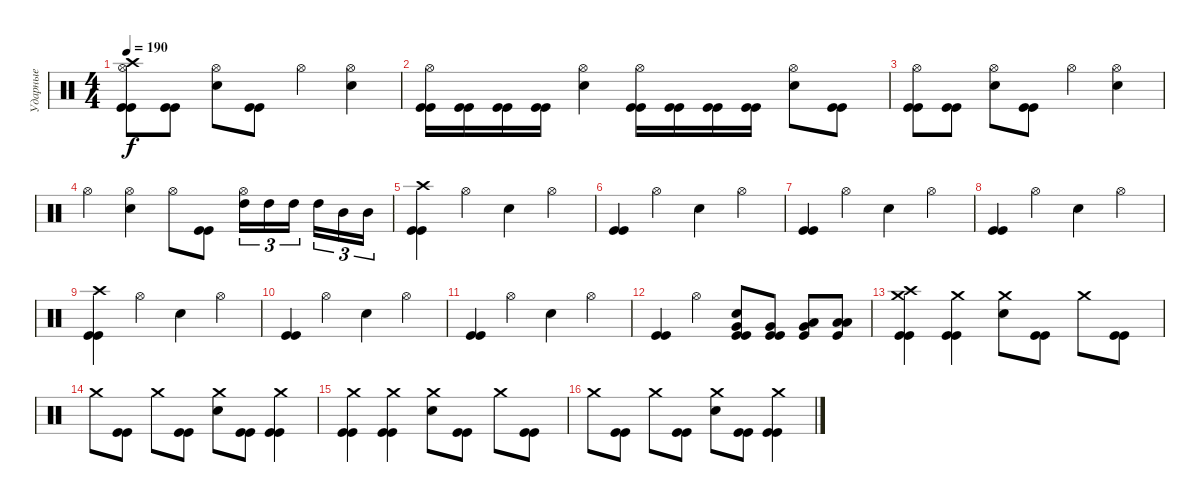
\track ("Ударные" "Ударные") {instrument percussion}
\staff {score}
\articulation defaults
\ts (4 4)
\tempo 190
\clef neutral
\ks c
("Crash high (hit)" "Hi-Hat (open)" "Kick (hit)" "Kick (hit)").8{dy f} ("Kick (hit)" "Kick (hit)").8 ("Hi-Hat (open)" "Electric Snare (hit)").8 ("Kick (hit)" "Kick (hit)").8 "Hi-Hat (open)".4 ("Hi-Hat (open)" "Electric Snare (hit)").4 |
("Hi-Hat (open)" "Kick (hit)" "Kick (hit)").16 ("Kick (hit)" "Kick (hit)").16 ("Kick (hit)" "Kick (hit)").16 ("Kick (hit)" "Kick (hit)").16 ("Hi-Hat (open)" "Electric Snare (hit)").4 ("Hi-Hat (open)" "Kick (hit)" "Kick (hit)").16 ("Kick (hit)" "Kick (hit)").16 ("Kick (hit)" "Kick (hit)").16 ("Kick (hit)" "Kick (hit)").16 ("Hi-Hat (open)" "Electric Snare (hit)").8 ("Kick (hit)" "Kick (hit)").8 |
("Hi-Hat (open)" "Kick (hit)" "Kick (hit)").8 ("Kick (hit)" "Kick (hit)").8 ("Hi-Hat (open)" "Electric Snare (hit)").8 ("Kick (hit)" "Kick (hit)").8 "Hi-Hat (open)".4 ("Hi-Hat (open)" "Electric Snare (hit)").4 |
"Hi-Hat (open)".4 ("Hi-Hat (open)" "Electric Snare (hit)").4 "Hi-Hat (open)".8 ("Kick (hit)" "Kick (hit)").8 ("Hi-Hat (open)" "High Tom (hit)").16{tu (3 2)} "High Tom (hit)".16{tu (3 2)} "High Tom (hit)".16{tu (3 2) beam splitsecondary} "High Tom (hit)".16{tu (3 2)} "Mid Tom (hit)".16{tu (3 2)} "Mid Tom (hit)".16{tu (3 2)} |
("Crash high (hit)" "Kick (hit)" "Kick (hit)").4 "Hi-Hat (open)".4 "Electric Snare (hit)".4 "Hi-Hat (open)".4 |
("Kick (hit)" "Kick (hit)").4 "Hi-Hat (open)".4 "Electric Snare (hit)".4 "Hi-Hat (open)".4 |
("Kick (hit)" "Kick (hit)").4 "Hi-Hat (open)".4 "Electric Snare (hit)".4 "Hi-Hat (open)".4 |
("Kick (hit)" "Kick (hit)").4 "Hi-Hat (open)".4 "Electric Snare (hit)".4 "Hi-Hat (open)".4 |
("Crash high (hit)" "Kick (hit)" "Kick (hit)").4 "Hi-Hat (open)".4 "Electric Snare (hit)".4 "Hi-Hat (open)".4 |
("Kick (hit)" "Kick (hit)").4 "Hi-Hat (open)".4 "Electric Snare (hit)".4 "Hi-Hat (open)".4 |
("Kick (hit)" "Kick (hit)").4 "Hi-Hat (open)".4 "Electric Snare (hit)".4 "Hi-Hat (open)".4 |
("Kick (hit)" "Kick (hit)").4 "Hi-Hat (open)".4 ("Electric Snare (hit)" "Very Low Tom (hit)" "Kick (hit)" "Kick (hit)").8 ("Very Low Tom (hit)" "Kick (hit)" "Kick (hit)").8 ("Very Low Tom (hit)" "Low Floor Tom (hit)" "Kick (hit)").8 ("Low Floor Tom (hit)" "Low Floor Tom (hit)" "Kick (hit)").8 |
("Crash high (hit)" "Crash medium (hit)" "Kick (hit)" "Kick (hit)").4 ("Crash medium (hit)" "Kick (hit)" "Kick (hit)").4 ("Crash medium (hit)" "Electric Snare (hit)").8 ("Kick (hit)" "Kick (hit)").8 "Crash medium (hit)".8 ("Kick (hit)" "Kick (hit)").8 |
"Crash medium (hit)".8 ("Kick (hit)" "Kick (hit)").8 "Crash medium (hit)".8 ("Kick (hit)" "Kick (hit)").8 ("Crash medium (hit)" "Electric Snare (hit)").8 ("Kick (hit)" "Kick (hit)").8 ("Crash medium (hit)" "Kick (hit)" "Kick (hit)").4 |
("Crash medium (hit)" "Kick (hit)" "Kick (hit)").4 ("Crash medium (hit)" "Kick (hit)" "Kick (hit)").4 ("Crash medium (hit)" "Electric Snare (hit)").8 ("Kick (hit)" "Kick (hit)").8 "Crash medium (hit)".8 ("Kick (hit)" "Kick (hit)").8 |
"Crash medium (hit)".8 ("Kick (hit)" "Kick (hit)").8 "Crash medium (hit)".8 ("Kick (hit)" "Kick (hit)").8 ("Crash medium (hit)" "Electric Snare (hit)").8 ("Kick (hit)" "Kick (hit)").8 ("Crash medium (hit)" "Kick (hit)" "Kick (hit)").4
